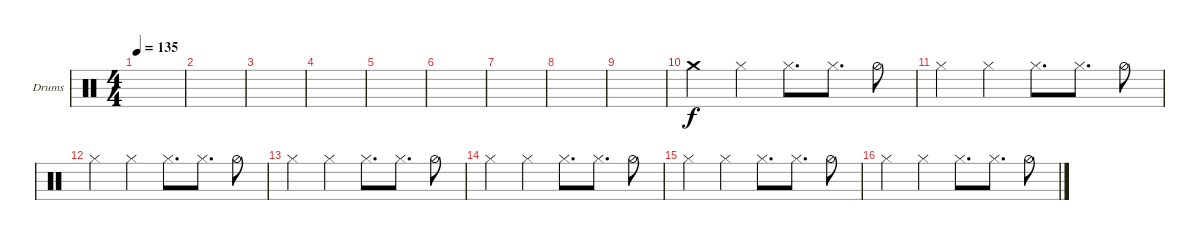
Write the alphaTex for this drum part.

\defaultSystemsLayout 4
\bracketExtendMode groupsimilarinstruments
\firstSystemTrackNameOrientation horizontal
\otherSystemsTrackNameOrientation horizontal
\track ("Helders" "Drums") {instrument percussion}
\staff {score}
\articulation defaults
\ts (4 4)
\tempo 135
\clef neutral
\ks c
|
|
|
|
|
|
|
|
|
"Crash medium (hit)".4 "Hi-Hat (closed)".4 "Hi-Hat (closed)".8{d} "Hi-Hat (closed)".8{d} "Hi-Hat (half)".8 |
"Hi-Hat (closed)".4 "Hi-Hat (closed)".4 "Hi-Hat (closed)".8{d} "Hi-Hat (closed)".8{d} "Hi-Hat (half)".8 |
"Hi-Hat (closed)".4 "Hi-Hat (closed)".4 "Hi-Hat (closed)".8{d} "Hi-Hat (closed)".8{d} "Hi-Hat (half)".8 |
"Hi-Hat (closed)".4 "Hi-Hat (closed)".4 "Hi-Hat (closed)".8{d} "Hi-Hat (closed)".8{d} "Hi-Hat (half)".8 |
"Hi-Hat (closed)".4 "Hi-Hat (closed)".4 "Hi-Hat (closed)".8{d} "Hi-Hat (closed)".8{d} "Hi-Hat (half)".8 |
"Hi-Hat (closed)".4 "Hi-Hat (closed)".4 "Hi-Hat (closed)".8{d} "Hi-Hat (closed)".8{d} "Hi-Hat (half)".8 |
"Hi-Hat (closed)".4 "Hi-Hat (closed)".4 "Hi-Hat (closed)".8{d} "Hi-Hat (closed)".8{d} "Hi-Hat (half)".8
